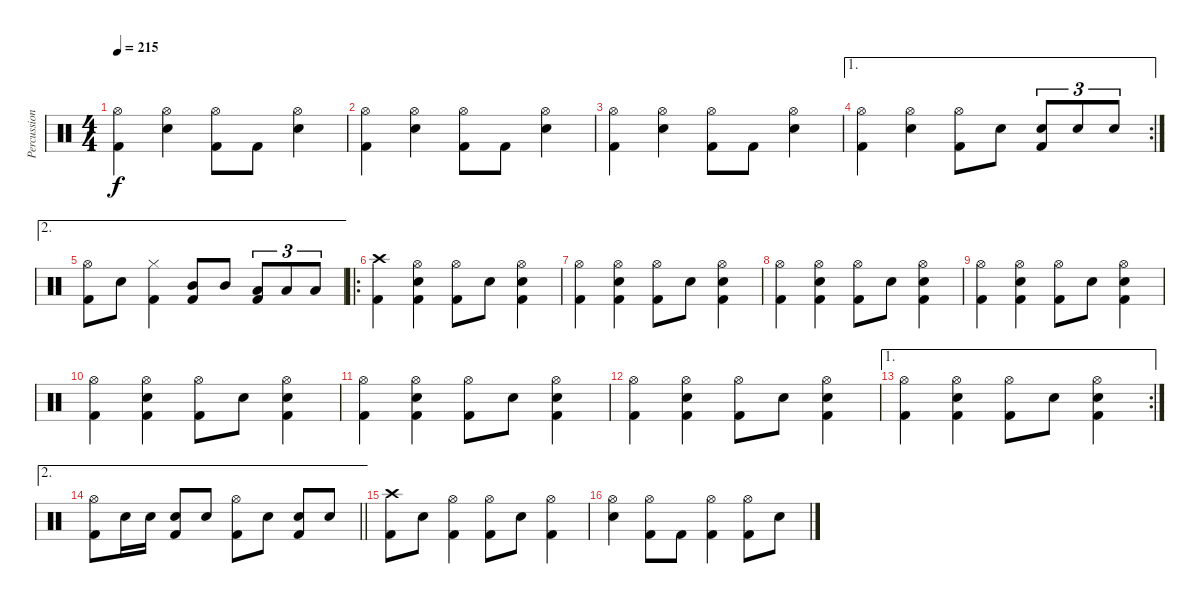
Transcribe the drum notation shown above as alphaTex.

\track ("Percussion" "Percussion") {instrument percussion}
\staff {score}
\articulation defaults
\ts (4 4)
\tempo 215
\clef neutral
\ks aminor
("Hi-Hat (open)" "Kick (hit) 2").4{dy f} ("Hi-Hat (open)" "Snare (hit) 2").4 ("Hi-Hat (open)" "Kick (hit) 2").8 "Kick (hit) 2".8 ("Hi-Hat (open)" "Snare (hit) 2").4 |
("Hi-Hat (open)" "Kick (hit) 2").4 ("Hi-Hat (open)" "Snare (hit) 2").4 ("Hi-Hat (open)" "Kick (hit) 2").8 "Kick (hit) 2".8 ("Hi-Hat (open)" "Snare (hit) 2").4 |
("Hi-Hat (open)" "Kick (hit) 2").4 ("Hi-Hat (open)" "Snare (hit) 2").4 ("Hi-Hat (open)" "Kick (hit) 2").8 "Kick (hit) 2".8 ("Hi-Hat (open)" "Snare (hit) 2").4 |
\ae 1
\rc 2
("Hi-Hat (open)" "Kick (hit) 2").4 ("Hi-Hat (open)" "Snare (hit) 2").4 ("Hi-Hat (open)" "Kick (hit) 2").8 "Snare (hit) 2".8 ("Kick (hit) 2" "Snare (hit) 2").8{tu (3 2)} "Snare (hit) 2".8{tu (3 2)} "Snare (hit) 2".8{tu (3 2)} |
\ae 2
("Hi-Hat (open)" "Kick (hit) 2").8 "Snare (hit) 2".8 ("Hi-Hat (closed)" "Kick (hit) 2").4 ("Mid Tom (hit)" "Kick (hit) 2").8 "Mid Tom (hit)".8 ("Low Tom (hit)" "Kick (hit) 2").8{tu (3 2)} "Low Tom (hit)".8{tu (3 2)} "Low Tom (hit)".8{tu (3 2)} |
\ro
("Crash high (hit)" "Kick (hit) 2").4 ("Hi-Hat (open)" "Snare (hit) 2" "Kick (hit) 2").4 ("Hi-Hat (open)" "Kick (hit) 2").8 "Snare (hit) 2".8 ("Hi-Hat (open)" "Snare (hit) 2" "Kick (hit) 2").4 |
("Hi-Hat (open)" "Kick (hit) 2").4 ("Hi-Hat (open)" "Snare (hit) 2" "Kick (hit) 2").4 ("Hi-Hat (open)" "Kick (hit) 2").8 "Snare (hit) 2".8 ("Hi-Hat (open)" "Snare (hit) 2" "Kick (hit) 2").4 |
("Hi-Hat (open)" "Kick (hit) 2").4 ("Hi-Hat (open)" "Snare (hit) 2" "Kick (hit) 2").4 ("Hi-Hat (open)" "Kick (hit) 2").8 "Snare (hit) 2".8 ("Hi-Hat (open)" "Snare (hit) 2" "Kick (hit) 2").4 |
("Hi-Hat (open)" "Kick (hit) 2").4 ("Hi-Hat (open)" "Snare (hit) 2" "Kick (hit) 2").4 ("Hi-Hat (open)" "Kick (hit) 2").8 "Snare (hit) 2".8 ("Hi-Hat (open)" "Snare (hit) 2" "Kick (hit) 2").4 |
("Hi-Hat (open)" "Kick (hit) 2").4 ("Hi-Hat (open)" "Snare (hit) 2" "Kick (hit) 2").4 ("Hi-Hat (open)" "Kick (hit) 2").8 "Snare (hit) 2".8 ("Hi-Hat (open)" "Snare (hit) 2" "Kick (hit) 2").4 |
("Hi-Hat (open)" "Kick (hit) 2").4 ("Hi-Hat (open)" "Snare (hit) 2" "Kick (hit) 2").4 ("Hi-Hat (open)" "Kick (hit) 2").8 "Snare (hit) 2".8 ("Hi-Hat (open)" "Snare (hit) 2" "Kick (hit) 2").4 |
("Hi-Hat (open)" "Kick (hit) 2").4 ("Hi-Hat (open)" "Snare (hit) 2" "Kick (hit) 2").4 ("Hi-Hat (open)" "Kick (hit) 2").8 "Snare (hit) 2".8 ("Hi-Hat (open)" "Snare (hit) 2" "Kick (hit) 2").4 |
\ae 1
\rc 2
("Hi-Hat (open)" "Kick (hit) 2").4 ("Hi-Hat (open)" "Snare (hit) 2" "Kick (hit) 2").4 ("Hi-Hat (open)" "Kick (hit) 2").8 "Snare (hit) 2".8 ("Hi-Hat (open)" "Snare (hit) 2" "Kick (hit) 2").4 |
\ae 2
\barLineRight lightlight
("Hi-Hat (open)" "Kick (hit) 2").8 "Snare (hit) 2".16 "Snare (hit) 2".16 ("Snare (hit) 2" "Kick (hit) 2").8 "Snare (hit) 2".8 ("Hi-Hat (open)" "Kick (hit) 2").8 "Snare (hit) 2".8 ("Snare (hit) 2" "Kick (hit) 2").8 "Snare (hit) 2".8 |
("Crash high (hit)" "Kick (hit) 2").8 "Snare (hit) 2".8 ("Hi-Hat (open)" "Kick (hit) 2").4 ("Hi-Hat (open)" "Kick (hit) 2").8 "Snare (hit) 2".8 ("Hi-Hat (open)" "Kick (hit) 2").4 |
("Hi-Hat (open)" "Snare (hit) 2").4 ("Hi-Hat (open)" "Kick (hit) 2").8 "Kick (hit) 2".8 ("Hi-Hat (open)" "Kick (hit) 2").4 ("Hi-Hat (open)" "Kick (hit) 2").8 "Snare (hit) 2".8
